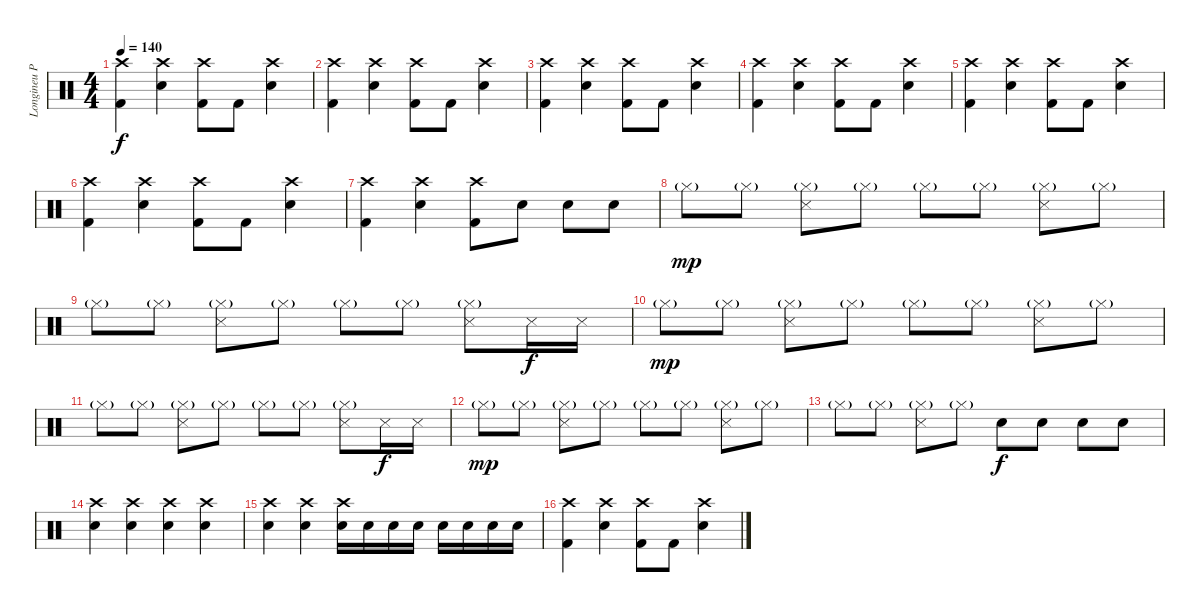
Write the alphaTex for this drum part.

\track ("Longineu Parsons III Drums" "Longineu P") {instrument percussion}
\staff {score}
\articulation defaults
\ts (4 4)
\tempo 140
\clef neutral
\ks c
("Crash high (hit)" "Kick (hit) 2").4{dy f} ("Crash high (hit)" "Snare (hit) 2").4 ("Crash high (hit)" "Kick (hit) 2").8 "Kick (hit) 2".8 ("Crash high (hit)" "Snare (hit) 2").4 |
("Crash high (hit)" "Kick (hit) 2").4 ("Crash high (hit)" "Snare (hit) 2").4 ("Crash high (hit)" "Kick (hit) 2").8 "Kick (hit) 2".8 ("Crash high (hit)" "Snare (hit) 2").4 |
("Crash high (hit)" "Kick (hit) 2").4 ("Crash high (hit)" "Snare (hit) 2").4 ("Crash high (hit)" "Kick (hit) 2").8 "Kick (hit) 2".8 ("Crash high (hit)" "Snare (hit) 2").4 |
("Crash high (hit)" "Kick (hit) 2").4 ("Crash high (hit)" "Snare (hit) 2").4 ("Crash high (hit)" "Kick (hit) 2").8 "Kick (hit) 2".8 ("Crash high (hit)" "Snare (hit) 2").4 |
("Crash high (hit)" "Kick (hit) 2").4 ("Crash high (hit)" "Snare (hit) 2").4 ("Crash high (hit)" "Kick (hit) 2").8 "Kick (hit) 2".8 ("Crash high (hit)" "Snare (hit) 2").4 |
("Crash high (hit)" "Kick (hit) 2").4 ("Crash high (hit)" "Snare (hit) 2").4 ("Crash high (hit)" "Kick (hit) 2").8 "Kick (hit) 2".8 ("Crash high (hit)" "Snare (hit) 2").4 |
("Crash high (hit)" "Kick (hit) 2").4 ("Crash high (hit)" "Snare (hit) 2").4 ("Crash high (hit)" "Kick (hit) 2").8 "Snare (hit) 2".8 "Snare (hit) 2".8 "Snare (hit) 2".8 |
"Hi-Hat (closed)"{g}.8{dy mp} "Hi-Hat (closed)"{g}.8 ("Hi-Hat (closed)"{g} "Snare (side stick) 3").8 "Hi-Hat (closed)"{g}.8 "Hi-Hat (closed)"{g}.8 "Hi-Hat (closed)"{g}.8 ("Hi-Hat (closed)"{g} "Snare (side stick) 3").8 "Hi-Hat (closed)"{g}.8 |
"Hi-Hat (closed)"{g}.8 "Hi-Hat (closed)"{g}.8 ("Hi-Hat (closed)"{g} "Snare (side stick) 3").8 "Hi-Hat (closed)"{g}.8 "Hi-Hat (closed)"{g}.8 "Hi-Hat (closed)"{g}.8 ("Hi-Hat (closed)"{g} "Snare (side stick) 3").8 "Snare (side stick) 3".16{dy f} "Snare (side stick) 3".16 |
"Hi-Hat (closed)"{g}.8{dy mp} "Hi-Hat (closed)"{g}.8 ("Hi-Hat (closed)"{g} "Snare (side stick) 3").8 "Hi-Hat (closed)"{g}.8 "Hi-Hat (closed)"{g}.8 "Hi-Hat (closed)"{g}.8 ("Hi-Hat (closed)"{g} "Snare (side stick) 3").8 "Hi-Hat (closed)"{g}.8 |
"Hi-Hat (closed)"{g}.8 "Hi-Hat (closed)"{g}.8 ("Hi-Hat (closed)"{g} "Snare (side stick) 3").8 "Hi-Hat (closed)"{g}.8 "Hi-Hat (closed)"{g}.8 "Hi-Hat (closed)"{g}.8 ("Hi-Hat (closed)"{g} "Snare (side stick) 3").8 "Snare (side stick) 3".16{dy f} "Snare (side stick) 3".16 |
"Hi-Hat (closed)"{g}.8{dy mp} "Hi-Hat (closed)"{g}.8 ("Hi-Hat (closed)"{g} "Snare (side stick) 3").8 "Hi-Hat (closed)"{g}.8 "Hi-Hat (closed)"{g}.8 "Hi-Hat (closed)"{g}.8 ("Hi-Hat (closed)"{g} "Snare (side stick) 3").8 "Hi-Hat (closed)"{g}.8 |
"Hi-Hat (closed)"{g}.8 "Hi-Hat (closed)"{g}.8 ("Hi-Hat (closed)"{g} "Snare (side stick) 3").8 "Hi-Hat (closed)"{g}.8 "Snare (hit) 2".8{dy f} "Snare (hit) 2".8 "Snare (hit) 2".8 "Snare (hit) 2".8 |
("Crash high (hit)" "Snare (hit) 2").4 ("Crash high (hit)" "Snare (hit) 2").4 ("Crash high (hit)" "Snare (hit) 2").4 ("Crash high (hit)" "Snare (hit) 2").4 |
("Crash high (hit)" "Snare (hit) 2").4 ("Crash high (hit)" "Snare (hit) 2").4 ("Crash high (hit)" "Snare (hit) 2").16 "Snare (hit) 2".16 "Snare (hit) 2".16 "Snare (hit) 2".16 "Snare (hit) 2".16 "Snare (hit) 2".16 "Snare (hit) 2".16 "Snare (hit) 2".16 |
("Crash high (hit)" "Kick (hit) 2").4 ("Crash high (hit)" "Snare (hit) 2").4 ("Crash high (hit)" "Kick (hit) 2").8 "Kick (hit) 2".8 ("Crash high (hit)" "Snare (hit) 2").4
